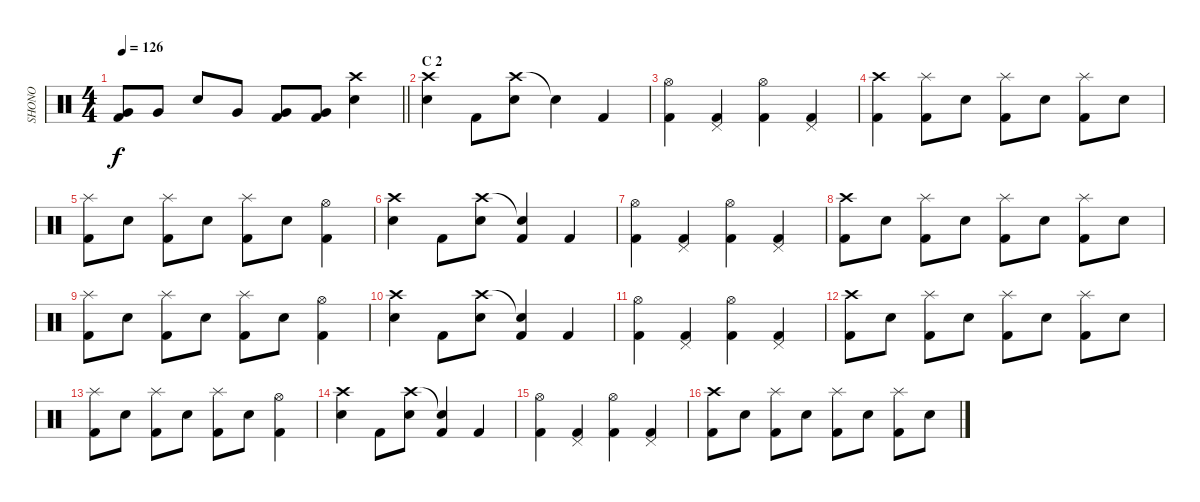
\track ("SHONO" "SHONO") {instrument percussion}
\staff {score}
\articulation defaults
\ts (4 4)
\tempo 126
\clef neutral
\barLineRight lightlight
\ks c
("Very Low Tom (hit)" "Kick (hit) 2").8{dy f} "Very Low Tom (hit)".8 "Snare (hit) 2".8 "Very Low Tom (hit)".8 ("Very Low Tom (hit)" "Kick (hit) 2").8 ("Very Low Tom (hit)" "Kick (hit) 2").8 ("Crash high (hit)" "Snare (hit) 2").4 |
\section ("" "C 2")
("Crash high (hit)" "Snare (hit) 2").4 "Kick (hit) 2".8 ("Crash high (hit)" "Snare (hit) 2").8 "Snare (hit)"{t}.4 "Kick (hit) 2".4 |
("Hi-Hat (open)" "Kick (hit) 2").4 ("Pedal Hi-Hat (hit)" "Kick (hit) 2").4 ("Hi-Hat (open)" "Kick (hit) 2").4 ("Pedal Hi-Hat (hit)" "Kick (hit) 2").4 |
("Crash high (hit)" "Kick (hit) 2").4 ("Splash (hit)" "Kick (hit) 2").8 "Snare (hit) 2".8 ("Splash (hit)" "Kick (hit) 2").8 "Snare (hit) 2".8 ("Splash (hit)" "Kick (hit) 2").8 "Snare (hit) 2".8 |
("Splash (hit)" "Kick (hit) 2").8 "Snare (hit) 2".8 ("Splash (hit)" "Kick (hit) 2").8 "Snare (hit) 2".8 ("Splash (hit)" "Kick (hit) 2").8 "Snare (hit) 2".8 ("Hi-Hat (open)" "Kick (hit) 2").4 |
("Crash high (hit)" "Snare (hit) 2").4 "Kick (hit) 2".8 ("Crash high (hit)" "Snare (hit) 2").8 ("Snare (hit)"{t} "Kick (hit) 2").4 "Kick (hit) 2".4 |
("Hi-Hat (open)" "Kick (hit) 2").4 ("Pedal Hi-Hat (hit)" "Kick (hit) 2").4 ("Hi-Hat (open)" "Kick (hit) 2").4 ("Pedal Hi-Hat (hit)" "Kick (hit) 2").4 |
("Crash high (hit)" "Kick (hit) 2").8 "Snare (hit) 2".8 ("Splash (hit)" "Kick (hit) 2").8 "Snare (hit) 2".8 ("Splash (hit)" "Kick (hit) 2").8 "Snare (hit) 2".8 ("Splash (hit)" "Kick (hit) 2").8 "Snare (hit) 2".8 |
("Splash (hit)" "Kick (hit) 2").8 "Snare (hit) 2".8 ("Splash (hit)" "Kick (hit) 2").8 "Snare (hit) 2".8 ("Splash (hit)" "Kick (hit) 2").8 "Snare (hit) 2".8 ("Hi-Hat (open)" "Kick (hit) 2").4 |
("Crash high (hit)" "Snare (hit) 2").4 "Kick (hit) 2".8 ("Crash high (hit)" "Snare (hit) 2").8 ("Snare (hit)"{t} "Kick (hit) 2").4 "Kick (hit) 2".4 |
("Hi-Hat (open)" "Kick (hit) 2").4 ("Pedal Hi-Hat (hit)" "Kick (hit) 2").4 ("Hi-Hat (open)" "Kick (hit) 2").4 ("Pedal Hi-Hat (hit)" "Kick (hit) 2").4 |
("Crash high (hit)" "Kick (hit) 2").8 "Snare (hit) 2".8 ("Splash (hit)" "Kick (hit) 2").8 "Snare (hit) 2".8 ("Splash (hit)" "Kick (hit) 2").8 "Snare (hit) 2".8 ("Splash (hit)" "Kick (hit) 2").8 "Snare (hit) 2".8 |
("Splash (hit)" "Kick (hit) 2").8 "Snare (hit) 2".8 ("Splash (hit)" "Kick (hit) 2").8 "Snare (hit) 2".8 ("Splash (hit)" "Kick (hit) 2").8 "Snare (hit) 2".8 ("Hi-Hat (open)" "Kick (hit) 2").4 |
("Crash high (hit)" "Snare (hit) 2").4 "Kick (hit) 2".8 ("Crash high (hit)" "Snare (hit) 2").8 ("Snare (hit)"{t} "Kick (hit) 2").4 "Kick (hit) 2".4 |
("Hi-Hat (open)" "Kick (hit) 2").4 ("Pedal Hi-Hat (hit)" "Kick (hit) 2").4 ("Hi-Hat (open)" "Kick (hit) 2").4 ("Pedal Hi-Hat (hit)" "Kick (hit) 2").4 |
("Crash high (hit)" "Kick (hit) 2").8 "Snare (hit) 2".8 ("Splash (hit)" "Kick (hit) 2").8 "Snare (hit) 2".8 ("Splash (hit)" "Kick (hit) 2").8 "Snare (hit) 2".8 ("Splash (hit)" "Kick (hit) 2").8 "Snare (hit) 2".8
